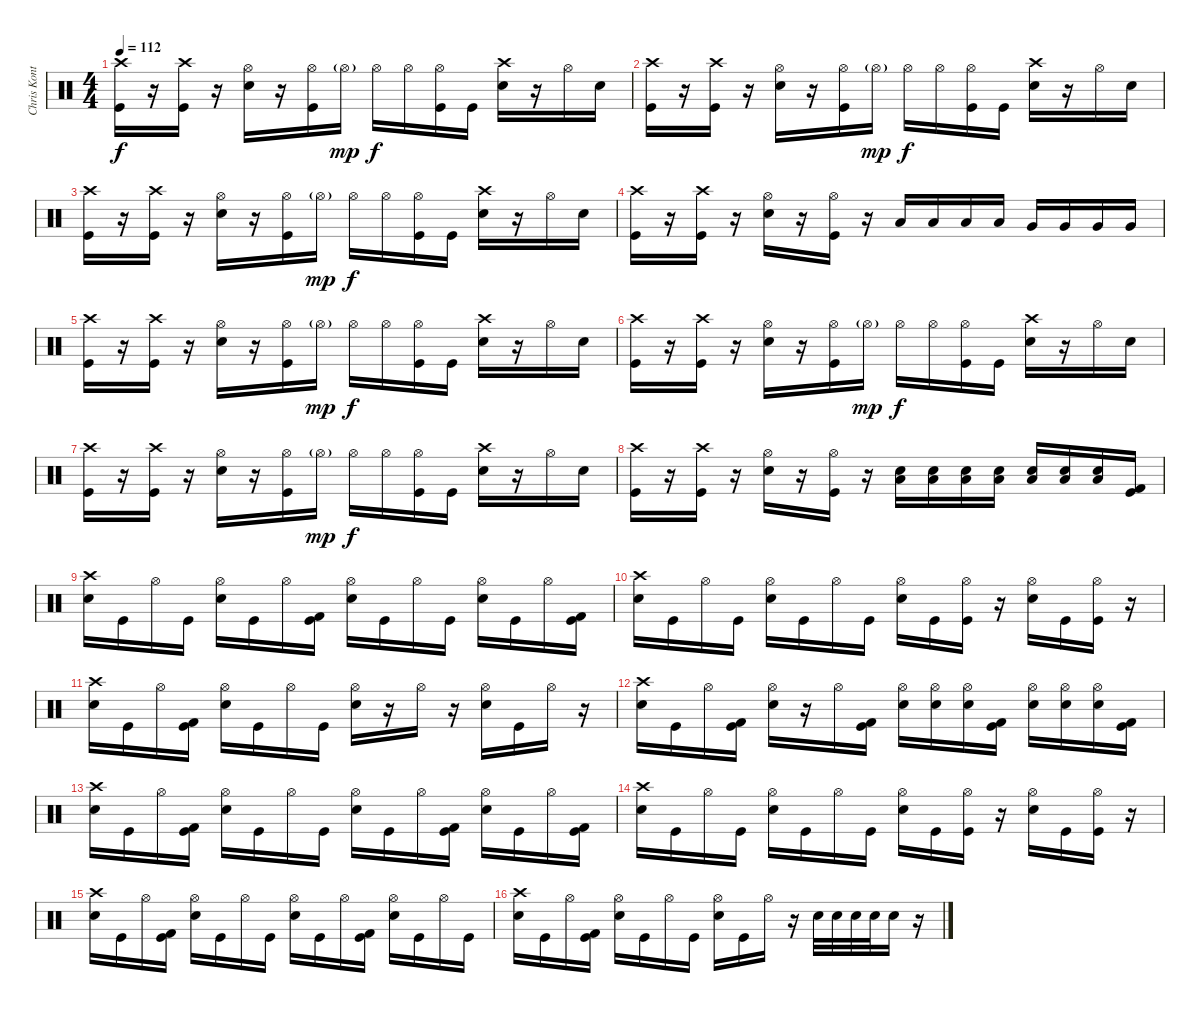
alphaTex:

\track ("Chris Kontos - Drums" "Chris Kont") {instrument percussion}
\staff {score}
\articulation defaults
\ts (4 4)
\tempo 112
\clef neutral
\ks c
("Crash high (hit)" "Kick (hit)").16{dy f} r.16 ("Crash high (hit)" "Kick (hit)").16 r.16 ("Hi-Hat (open)" "Snare (hit) 2").16 r.16 ("Hi-Hat (open)" "Kick (hit)").16 "Hi-Hat (open)"{g}.16{dy mp} "Hi-Hat (open)".16{dy f} "Hi-Hat (open)".16 ("Hi-Hat (open)" "Kick (hit)").16 "Kick (hit)".16 ("Crash high (hit)" "Snare (hit) 2").16 r.16 "Hi-Hat (open)".16 "Snare (hit) 2".16 |
("Crash high (hit)" "Kick (hit)").16 r.16 ("Crash high (hit)" "Kick (hit)").16 r.16 ("Hi-Hat (open)" "Snare (hit) 2").16 r.16 ("Hi-Hat (open)" "Kick (hit)").16 "Hi-Hat (open)"{g}.16{dy mp} "Hi-Hat (open)".16{dy f} "Hi-Hat (open)".16 ("Hi-Hat (open)" "Kick (hit)").16 "Kick (hit)".16 ("Crash high (hit)" "Snare (hit) 2").16 r.16 "Hi-Hat (open)".16 "Snare (hit) 2".16 |
("Crash high (hit)" "Kick (hit)").16 r.16 ("Crash high (hit)" "Kick (hit)").16 r.16 ("Hi-Hat (open)" "Snare (hit) 2").16 r.16 ("Hi-Hat (open)" "Kick (hit)").16 "Hi-Hat (open)"{g}.16{dy mp} "Hi-Hat (open)".16{dy f} "Hi-Hat (open)".16 ("Hi-Hat (open)" "Kick (hit)").16 "Kick (hit)".16 ("Crash high (hit)" "Snare (hit) 2").16 r.16 "Hi-Hat (open)".16 "Snare (hit) 2".16 |
("Crash high (hit)" "Kick (hit)").16 r.16 ("Crash high (hit)" "Kick (hit)").16 r.16 ("Hi-Hat (open)" "Snare (hit) 2").16 r.16 ("Hi-Hat (open)" "Kick (hit)").16 r.16 "Low Tom (hit)".16 "Low Tom (hit)".16 "Low Tom (hit)".16 "Low Tom (hit)".16 "Very Low Tom (hit)".16 "Very Low Tom (hit)".16 "Very Low Tom (hit)".16 "Very Low Tom (hit)".16 |
("Crash high (hit)" "Kick (hit)").16 r.16 ("Crash high (hit)" "Kick (hit)").16 r.16 ("Hi-Hat (open)" "Snare (hit) 2").16 r.16 ("Hi-Hat (open)" "Kick (hit)").16 "Hi-Hat (open)"{g}.16{dy mp} "Hi-Hat (open)".16{dy f} "Hi-Hat (open)".16 ("Hi-Hat (open)" "Kick (hit)").16 "Kick (hit)".16 ("Crash high (hit)" "Snare (hit) 2").16 r.16 "Hi-Hat (open)".16 "Snare (hit) 2".16 |
("Crash high (hit)" "Kick (hit)").16 r.16 ("Crash high (hit)" "Kick (hit)").16 r.16 ("Hi-Hat (open)" "Snare (hit) 2").16 r.16 ("Hi-Hat (open)" "Kick (hit)").16 "Hi-Hat (open)"{g}.16{dy mp} "Hi-Hat (open)".16{dy f} "Hi-Hat (open)".16 ("Hi-Hat (open)" "Kick (hit)").16 "Kick (hit)".16 ("Crash high (hit)" "Snare (hit) 2").16 r.16 "Hi-Hat (open)".16 "Snare (hit) 2".16 |
("Crash high (hit)" "Kick (hit)").16 r.16 ("Crash high (hit)" "Kick (hit)").16 r.16 ("Hi-Hat (open)" "Snare (hit) 2").16 r.16 ("Hi-Hat (open)" "Kick (hit)").16 "Hi-Hat (open)"{g}.16{dy mp} "Hi-Hat (open)".16{dy f} "Hi-Hat (open)".16 ("Hi-Hat (open)" "Kick (hit)").16 "Kick (hit)".16 ("Crash high (hit)" "Snare (hit) 2").16 r.16 "Hi-Hat (open)".16 "Snare (hit) 2".16 |
("Crash high (hit)" "Kick (hit)").16 r.16 ("Crash high (hit)" "Kick (hit)").16 r.16 ("Hi-Hat (open)" "Snare (hit) 2").16 r.16 ("Hi-Hat (open)" "Kick (hit)").16 r.16 ("Low Tom (hit)" "Snare (hit) 2").16 ("Low Tom (hit)" "Snare (hit) 2").16 ("Low Tom (hit)" "Snare (hit) 2").16 ("Low Tom (hit)" "Snare (hit) 2").16 ("Low Tom (hit)" "Snare (hit) 2").16 ("Low Tom (hit)" "Snare (hit) 2").16 ("Low Tom (hit)" "Snare (hit) 2").16 ("Kick (hit) 2" "Kick (hit)").16 |
("Crash high (hit)" "Snare (hit) 2").16 "Kick (hit)".16 "Hi-Hat (open)".16 "Kick (hit)".16 ("Hi-Hat (open)" "Snare (hit) 2").16 "Kick (hit)".16 "Hi-Hat (open)".16 ("Kick (hit) 2" "Kick (hit)").16 ("Hi-Hat (open)" "Snare (hit) 2").16 "Kick (hit)".16 "Hi-Hat (open)".16 "Kick (hit)".16 ("Hi-Hat (open)" "Snare (hit) 2").16 "Kick (hit)".16 "Hi-Hat (open)".16 ("Kick (hit) 2" "Kick (hit)").16 |
("Crash high (hit)" "Snare (hit) 2").16 "Kick (hit)".16 "Hi-Hat (open)".16 "Kick (hit)".16 ("Hi-Hat (open)" "Snare (hit) 2").16 "Kick (hit)".16 "Hi-Hat (open)".16 "Kick (hit)".16 ("Hi-Hat (open)" "Snare (hit) 2").16 "Kick (hit)".16 ("Hi-Hat (open)" "Kick (hit)").16 r.16 ("Hi-Hat (open)" "Snare (hit) 2").16 "Kick (hit)".16 ("Hi-Hat (open)" "Kick (hit)").16 r.16 |
("Crash high (hit)" "Snare (hit) 2").16 "Kick (hit)".16 "Hi-Hat (open)".16 ("Kick (hit) 2" "Kick (hit)").16 ("Hi-Hat (open)" "Snare (hit) 2").16 "Kick (hit)".16 "Hi-Hat (open)".16 "Kick (hit)".16 ("Hi-Hat (open)" "Snare (hit) 2").16 r.16 "Hi-Hat (open)".16 r.16 ("Hi-Hat (open)" "Snare (hit) 2").16 "Kick (hit)".16 "Hi-Hat (open)".16 r.16 |
("Crash high (hit)" "Snare (hit) 2").16 "Kick (hit)".16 "Hi-Hat (open)".16 ("Kick (hit) 2" "Kick (hit)").16 ("Hi-Hat (open)" "Snare (hit) 2").16 r.16 "Hi-Hat (open)".16 ("Kick (hit)" "Kick (hit) 2").16 ("Hi-Hat (open)" "Snare (hit) 2").16 ("Hi-Hat (open)" "Snare (hit) 2").16 ("Hi-Hat (open)" "Snare (hit) 2").16 ("Kick (hit)" "Kick (hit) 2").16 ("Hi-Hat (open)" "Snare (hit) 2").16 ("Hi-Hat (open)" "Snare (hit) 2").16 ("Hi-Hat (open)" "Snare (hit) 2").16 ("Kick (hit) 2" "Kick (hit)").16 |
("Crash high (hit)" "Snare (hit) 2").16 "Kick (hit)".16 "Hi-Hat (open)".16 ("Kick (hit) 2" "Kick (hit)").16 ("Hi-Hat (open)" "Snare (hit) 2").16 "Kick (hit)".16 "Hi-Hat (open)".16 "Kick (hit)".16 ("Hi-Hat (open)" "Snare (hit) 2").16 "Kick (hit)".16 "Hi-Hat (open)".16 ("Kick (hit) 2" "Kick (hit)").16 ("Hi-Hat (open)" "Snare (hit) 2").16 "Kick (hit)".16 "Hi-Hat (open)".16 ("Kick (hit) 2" "Kick (hit)").16 |
("Crash high (hit)" "Snare (hit) 2").16 "Kick (hit)".16 "Hi-Hat (open)".16 "Kick (hit)".16 ("Hi-Hat (open)" "Snare (hit) 2").16 "Kick (hit)".16 "Hi-Hat (open)".16 "Kick (hit)".16 ("Hi-Hat (open)" "Snare (hit) 2").16 "Kick (hit)".16 ("Hi-Hat (open)" "Kick (hit)").16 r.16 ("Hi-Hat (open)" "Snare (hit) 2").16 "Kick (hit)".16 ("Hi-Hat (open)" "Kick (hit)").16 r.16 |
("Crash high (hit)" "Snare (hit) 2").16 "Kick (hit)".16 "Hi-Hat (open)".16 ("Kick (hit) 2" "Kick (hit)").16 ("Hi-Hat (open)" "Snare (hit) 2").16 "Kick (hit)".16 "Hi-Hat (open)".16 "Kick (hit)".16 ("Hi-Hat (open)" "Snare (hit) 2").16 "Kick (hit)".16 "Hi-Hat (open)".16 ("Kick (hit) 2" "Kick (hit)").16 ("Hi-Hat (open)" "Snare (hit) 2").16 "Kick (hit)".16 "Hi-Hat (open)".16 "Kick (hit)".16 |
("Crash high (hit)" "Snare (hit) 2").16 "Kick (hit)".16 "Hi-Hat (open)".16 ("Kick (hit) 2" "Kick (hit)").16 ("Hi-Hat (open)" "Snare (hit) 2").16 "Kick (hit)".16 "Hi-Hat (open)".16 "Kick (hit)".16 ("Hi-Hat (open)" "Snare (hit) 2").16 "Kick (hit)".16 "Hi-Hat (open)".16 r.16 "Snare (hit) 2".32 "Snare (hit) 2".32 "Snare (hit) 2".32 "Snare (hit) 2".32 "Snare (hit) 2".16 r.16
